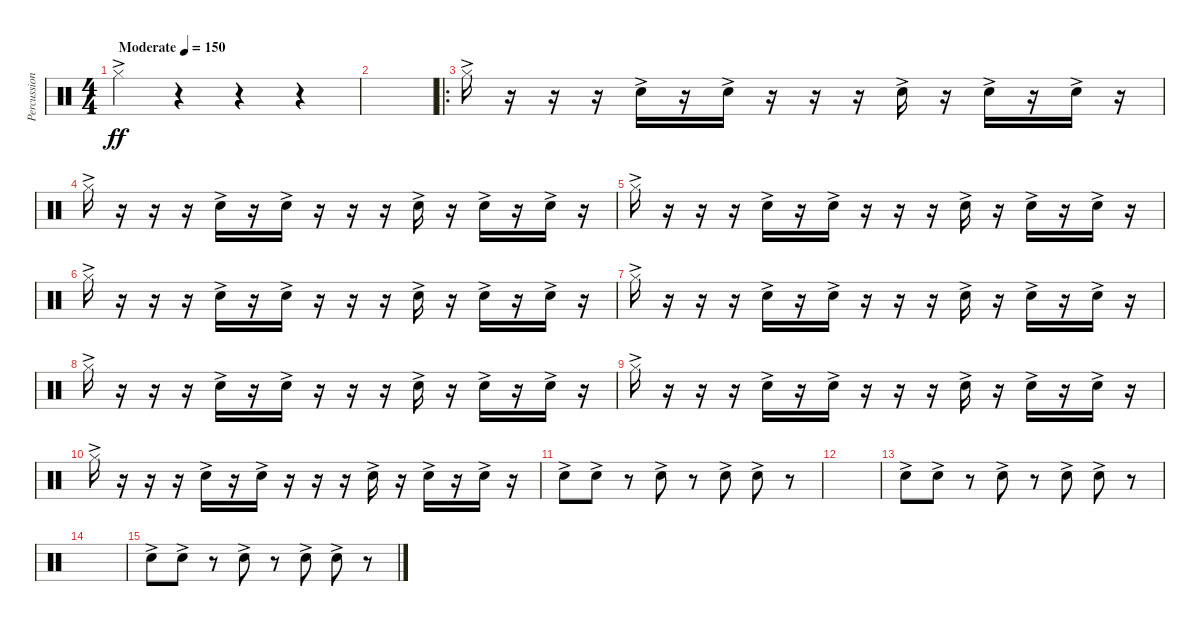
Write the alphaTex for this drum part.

\track ("Percussion" "Percussion") {instrument percussion bank 1}
\staff {score}
\articulation defaults
\ts (4 4)
\tempo (150 "Moderate")
\clef neutral
\ks c "Hi-Hat (closed)"{ac}.4{dy ff}
r.4 r.4 r.4 |
|
\ro "Hi-Hat (closed)"{ac}.16
r.16 r.16 r.16 "Snare (hit) 2"{ac}.16 r.16 "Snare (hit) 2"{ac}.16 r.16 r.16 r.16 "Snare (hit) 2"{ac}.16 r.16 "Snare (hit) 2"{ac}.16 r.16 "Snare (hit) 2"{ac}.16 r.16 |
"Hi-Hat (closed)"{ac}.16 r.16 r.16 r.16 "Snare (hit) 2"{ac}.16 r.16 "Snare (hit) 2"{ac}.16 r.16 r.16 r.16 "Snare (hit) 2"{ac}.16 r.16 "Snare (hit) 2"{ac}.16 r.16 "Snare (hit) 2"{ac}.16 r.16 |
"Hi-Hat (closed)"{ac}.16 r.16 r.16 r.16 "Snare (hit) 2"{ac}.16 r.16 "Snare (hit) 2"{ac}.16 r.16 r.16 r.16 "Snare (hit) 2"{ac}.16 r.16 "Snare (hit) 2"{ac}.16 r.16 "Snare (hit) 2"{ac}.16 r.16 |
"Hi-Hat (closed)"{ac}.16 r.16 r.16 r.16 "Snare (hit) 2"{ac}.16 r.16 "Snare (hit) 2"{ac}.16 r.16 r.16 r.16 "Snare (hit) 2"{ac}.16 r.16 "Snare (hit) 2"{ac}.16 r.16 "Snare (hit) 2"{ac}.16 r.16 |
"Hi-Hat (closed)"{ac}.16 r.16 r.16 r.16 "Snare (hit) 2"{ac}.16 r.16 "Snare (hit) 2"{ac}.16 r.16 r.16 r.16 "Snare (hit) 2"{ac}.16 r.16 "Snare (hit) 2"{ac}.16 r.16 "Snare (hit) 2"{ac}.16 r.16 |
"Hi-Hat (closed)"{ac}.16 r.16 r.16 r.16 "Snare (hit) 2"{ac}.16 r.16 "Snare (hit) 2"{ac}.16 r.16 r.16 r.16 "Snare (hit) 2"{ac}.16 r.16 "Snare (hit) 2"{ac}.16 r.16 "Snare (hit) 2"{ac}.16 r.16 |
"Hi-Hat (closed)"{ac}.16 r.16 r.16 r.16 "Snare (hit) 2"{ac}.16 r.16 "Snare (hit) 2"{ac}.16 r.16 r.16 r.16 "Snare (hit) 2"{ac}.16 r.16 "Snare (hit) 2"{ac}.16 r.16 "Snare (hit) 2"{ac}.16 r.16 |
"Hi-Hat (closed)"{ac}.16 r.16 r.16 r.16 "Snare (hit) 2"{ac}.16 r.16 "Snare (hit) 2"{ac}.16 r.16 r.16 r.16 "Snare (hit) 2"{ac}.16 r.16 "Snare (hit) 2"{ac}.16 r.16 "Snare (hit) 2"{ac}.16 r.16 |
"Snare (hit) 2"{ac}.8 "Snare (hit) 2"{ac}.8 r.8 "Snare (hit) 2"{ac}.8 r.8 "Snare (hit) 2"{ac}.8 "Snare (hit) 2"{ac}.8 r.8 |
|
"Snare (hit) 2"{ac}.8 "Snare (hit) 2"{ac}.8 r.8 "Snare (hit) 2"{ac}.8 r.8 "Snare (hit) 2"{ac}.8 "Snare (hit) 2"{ac}.8 r.8 |
|
"Snare (hit) 2"{ac}.8 "Snare (hit) 2"{ac}.8 r.8 "Snare (hit) 2"{ac}.8 r.8 "Snare (hit) 2"{ac}.8 "Snare (hit) 2"{ac}.8 r.8
